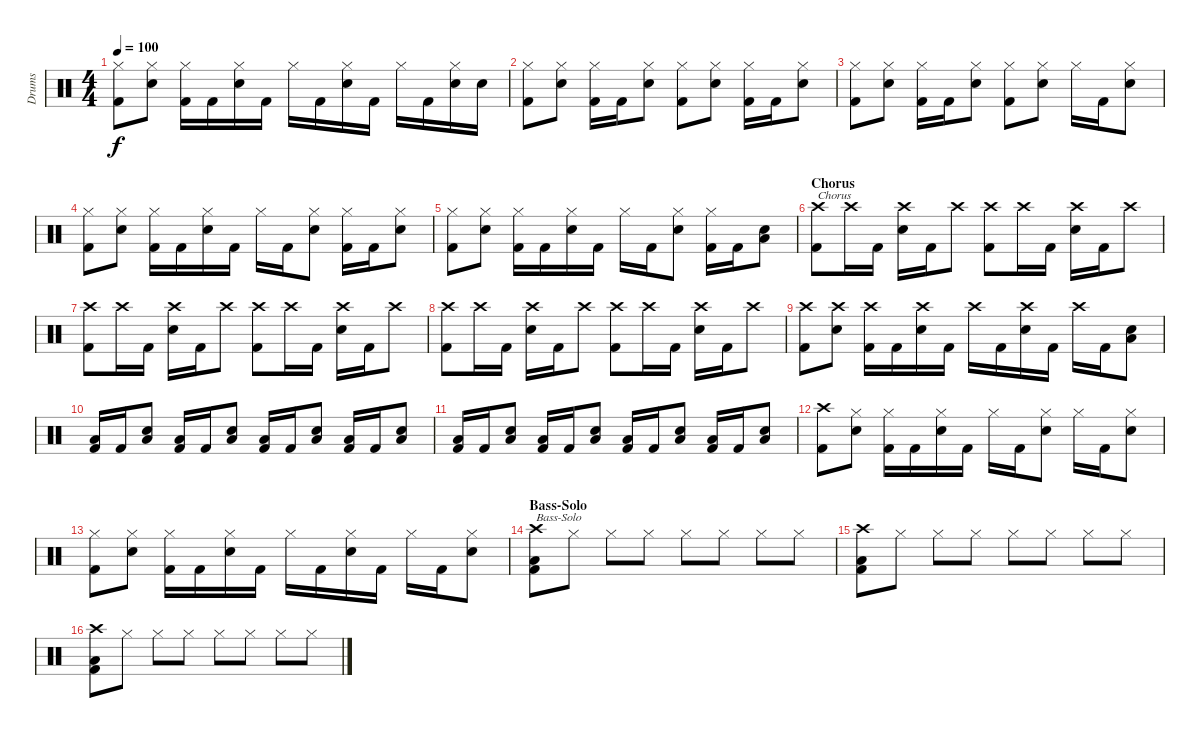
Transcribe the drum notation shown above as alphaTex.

\track ("Drums" "Drums") {instrument percussion}
\staff {score}
\articulation defaults
\ts (4 4)
\tempo 100
\clef neutral
\ks c
("Hi-Hat (closed)" "Kick (hit) 2").8{dy f} ("Hi-Hat (closed)" "Electric Snare (hit)").8 ("Hi-Hat (closed)" "Kick (hit) 2").16 "Kick (hit) 2".16 ("Hi-Hat (closed)" "Electric Snare (hit)").16 "Kick (hit) 2".16 "Hi-Hat (closed)".16 "Kick (hit) 2".16 ("Hi-Hat (closed)" "Electric Snare (hit)").16 "Kick (hit) 2".16 "Hi-Hat (closed)".16 "Kick (hit) 2".16 ("Hi-Hat (closed)" "Electric Snare (hit)").16 "Electric Snare (hit)".16 |
("Hi-Hat (closed)" "Kick (hit) 2").8 ("Hi-Hat (closed)" "Electric Snare (hit)").8 ("Hi-Hat (closed)" "Kick (hit) 2").16 "Kick (hit) 2".16 ("Hi-Hat (closed)" "Electric Snare (hit)").8 ("Hi-Hat (closed)" "Kick (hit) 2").8 ("Hi-Hat (closed)" "Electric Snare (hit)").8 ("Hi-Hat (closed)" "Kick (hit) 2").16 "Kick (hit) 2".16 ("Hi-Hat (closed)" "Electric Snare (hit)").8 |
("Hi-Hat (closed)" "Kick (hit) 2").8 ("Hi-Hat (closed)" "Electric Snare (hit)").8 ("Hi-Hat (closed)" "Kick (hit) 2").16 "Kick (hit) 2".16 ("Hi-Hat (closed)" "Electric Snare (hit)").8 ("Hi-Hat (closed)" "Kick (hit) 2").8 ("Hi-Hat (closed)" "Electric Snare (hit)").8 "Hi-Hat (closed)".16 "Kick (hit) 2".16 ("Hi-Hat (closed)" "Electric Snare (hit)").8 |
("Hi-Hat (closed)" "Kick (hit) 2").8 ("Hi-Hat (closed)" "Electric Snare (hit)").8 ("Hi-Hat (closed)" "Kick (hit) 2").16 "Kick (hit) 2".16 ("Hi-Hat (closed)" "Electric Snare (hit)").16 "Kick (hit) 2".16 "Hi-Hat (closed)".16 "Kick (hit) 2".16 ("Hi-Hat (closed)" "Electric Snare (hit)").8 ("Hi-Hat (closed)" "Kick (hit) 2").16 "Kick (hit) 2".16 ("Hi-Hat (closed)" "Electric Snare (hit)").8 |
("Hi-Hat (closed)" "Kick (hit) 2").8 ("Hi-Hat (closed)" "Electric Snare (hit)").8 ("Hi-Hat (closed)" "Kick (hit) 2").16 "Kick (hit) 2".16 ("Hi-Hat (closed)" "Electric Snare (hit)").16 "Kick (hit) 2".16 "Hi-Hat (closed)".16 "Kick (hit) 2".16 ("Hi-Hat (closed)" "Electric Snare (hit)").8 ("Hi-Hat (closed)" "Kick (hit) 2").16 "Kick (hit) 2".16 ("Electric Snare (hit)" "Low Floor Tom (hit)").8 |
\section ("" "Chorus")
("Crash high (hit)" "Kick (hit) 2").8{txt "Chorus"} "Crash high (hit)".16 "Kick (hit) 2".16 ("Crash high (hit)" "Electric Snare (hit)").16 "Kick (hit) 2".16 "Crash high (hit)".8 ("Crash high (hit)" "Kick (hit) 2").8 "Crash high (hit)".16 "Kick (hit) 2".16 ("Crash high (hit)" "Electric Snare (hit)").16 "Kick (hit) 2".16 "Crash high (hit)".8 |
("Crash high (hit)" "Kick (hit) 2").8 "Crash high (hit)".16 "Kick (hit) 2".16 ("Crash high (hit)" "Electric Snare (hit)").16 "Kick (hit) 2".16 "Crash high (hit)".8 ("Crash high (hit)" "Kick (hit) 2").8 "Crash high (hit)".16 "Kick (hit) 2".16 ("Crash high (hit)" "Electric Snare (hit)").16 "Kick (hit) 2".16 "Crash high (hit)".8 |
("Crash high (hit)" "Kick (hit) 2").8 "Crash high (hit)".16 "Kick (hit) 2".16 ("Crash high (hit)" "Electric Snare (hit)").16 "Kick (hit) 2".16 "Crash high (hit)".8 ("Crash high (hit)" "Kick (hit) 2").8 "Crash high (hit)".16 "Kick (hit) 2".16 ("Crash high (hit)" "Electric Snare (hit)").16 "Kick (hit) 2".16 "Crash high (hit)".8 |
("Crash high (hit)" "Kick (hit) 2").8 ("Crash high (hit)" "Electric Snare (hit)").8 ("Crash high (hit)" "Kick (hit) 2").16 "Kick (hit) 2".16 ("Crash high (hit)" "Electric Snare (hit)").16 "Kick (hit) 2".16 "Crash high (hit)".16 "Kick (hit) 2".16 ("Crash high (hit)" "Electric Snare (hit)").16 "Kick (hit) 2".16 "Crash high (hit)".16 "Kick (hit) 2".16 ("Electric Snare (hit)" "Low Floor Tom (hit)").8 |
("Low Floor Tom (hit)" "Kick (hit) 2").16 "Kick (hit) 2".16 ("Electric Snare (hit)" "Low Floor Tom (hit)").8 ("Low Floor Tom (hit)" "Kick (hit) 2").16 "Kick (hit) 2".16 ("Electric Snare (hit)" "Low Floor Tom (hit)").8 ("Low Floor Tom (hit)" "Kick (hit) 2").16 "Kick (hit) 2".16 ("Electric Snare (hit)" "Low Floor Tom (hit)").8 ("Low Floor Tom (hit)" "Kick (hit) 2").16 "Kick (hit) 2".16 ("Electric Snare (hit)" "Low Floor Tom (hit)").8 |
("Low Floor Tom (hit)" "Kick (hit) 2").16 "Kick (hit) 2".16 ("Electric Snare (hit)" "Low Floor Tom (hit)").8 ("Low Floor Tom (hit)" "Kick (hit) 2").16 "Kick (hit) 2".16 ("Electric Snare (hit)" "Low Floor Tom (hit)").8 ("Low Floor Tom (hit)" "Kick (hit) 2").16 "Kick (hit) 2".16 ("Electric Snare (hit)" "Low Floor Tom (hit)").8 ("Low Floor Tom (hit)" "Kick (hit) 2").16 "Kick (hit) 2".16 ("Electric Snare (hit)" "Low Floor Tom (hit)").8 |
("Crash high (hit)" "Kick (hit) 2").8 ("Hi-Hat (closed)" "Electric Snare (hit)").8 ("Hi-Hat (closed)" "Kick (hit) 2").16 "Kick (hit) 2".16 ("Hi-Hat (closed)" "Electric Snare (hit)").16 "Kick (hit) 2".16 "Hi-Hat (closed)".16 "Kick (hit) 2".16 ("Hi-Hat (closed)" "Electric Snare (hit)").8 "Hi-Hat (closed)".16 "Kick (hit) 2".16 ("Hi-Hat (closed)" "Electric Snare (hit)").8 |
("Hi-Hat (closed)" "Kick (hit) 2").8 ("Hi-Hat (closed)" "Electric Snare (hit)").8 ("Hi-Hat (closed)" "Kick (hit) 2").16 "Kick (hit) 2".16 ("Hi-Hat (closed)" "Electric Snare (hit)").16 "Kick (hit) 2".16 "Hi-Hat (closed)".16 "Kick (hit) 2".16 ("Hi-Hat (closed)" "Electric Snare (hit)").16 "Kick (hit) 2".16 "Hi-Hat (closed)".16 "Kick (hit) 2".16 ("Hi-Hat (closed)" "Electric Snare (hit)").8 |
\section ("" "Bass-Solo")
("Crash high (hit)" "Low Floor Tom (hit)" "Kick (hit) 2").8{txt "Bass-Solo"} "Hi-Hat (closed)".8 "Hi-Hat (closed)".8 "Hi-Hat (closed)".8 "Hi-Hat (closed)".8 "Hi-Hat (closed)".8 "Hi-Hat (closed)".8 "Hi-Hat (closed)".8 |
("Crash high (hit)" "Low Floor Tom (hit)" "Kick (hit) 2").8 "Hi-Hat (closed)".8 "Hi-Hat (closed)".8 "Hi-Hat (closed)".8 "Hi-Hat (closed)".8 "Hi-Hat (closed)".8 "Hi-Hat (closed)".8 "Hi-Hat (closed)".8 |
("Crash high (hit)" "Low Floor Tom (hit)" "Kick (hit) 2").8 "Hi-Hat (closed)".8 "Hi-Hat (closed)".8 "Hi-Hat (closed)".8 "Hi-Hat (closed)".8 "Hi-Hat (closed)".8 "Hi-Hat (closed)".8 "Hi-Hat (closed)".8
